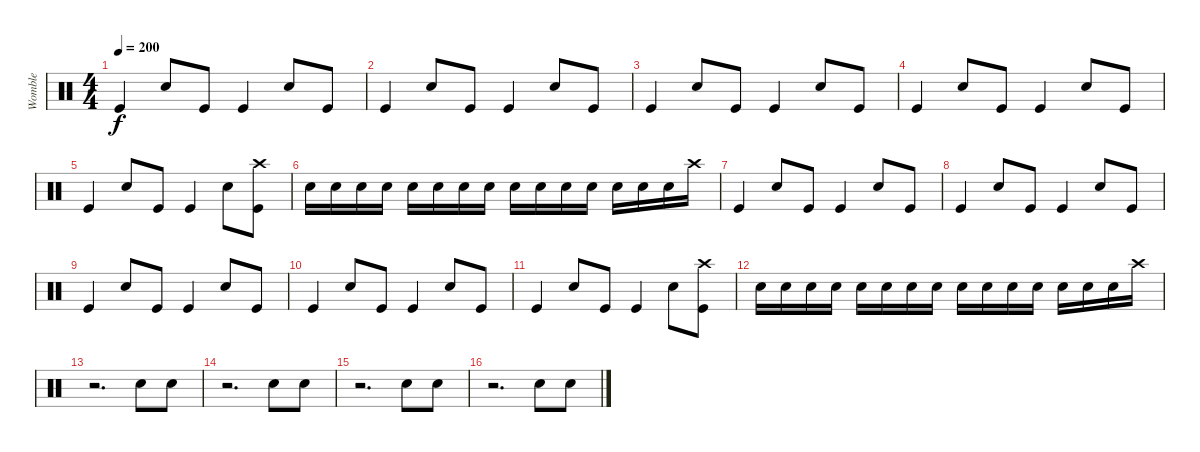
\track ("Womble" "Womble") {instrument percussion}
\staff {score}
\articulation defaults
\ts (4 4)
\tempo 200
\clef neutral
\ks c "Kick (hit)".4{dy f} "Snare (hit) 2".8 "Kick (hit)".8 "Kick (hit)".4 "Electric Snare (hit)".8 "Kick (hit)".8
|
"Kick (hit)".4 "Snare (hit) 2".8 "Kick (hit)".8 "Kick (hit)".4 "Electric Snare (hit)".8 "Kick (hit)".8 |
"Kick (hit)".4 "Snare (hit) 2".8 "Kick (hit)".8 "Kick (hit)".4 "Electric Snare (hit)".8 "Kick (hit)".8 |
"Kick (hit)".4 "Snare (hit) 2".8 "Kick (hit)".8 "Kick (hit)".4 "Electric Snare (hit)".8 "Kick (hit)".8 |
"Kick (hit)".4 "Snare (hit) 2".8 "Kick (hit)".8 "Kick (hit)".4 "Electric Snare (hit)".8 ("Crash high (hit)" "Kick (hit)").8 |
"Snare (hit) 2".16 "Snare (hit) 2".16 "Snare (hit) 2".16 "Snare (hit) 2".16 "Snare (hit) 2".16 "Snare (hit) 2".16 "Snare (hit) 2".16 "Snare (hit) 2".16 "Snare (hit) 2".16 "Snare (hit) 2".16 "Snare (hit) 2".16 "Snare (hit) 2".16 "Snare (hit) 2".16 "Snare (hit) 2".16 "Snare (hit) 2".16 "Crash high (hit)".16 |
"Kick (hit)".4 "Snare (hit) 2".8 "Kick (hit)".8 "Kick (hit)".4 "Electric Snare (hit)".8 "Kick (hit)".8 |
"Kick (hit)".4 "Snare (hit) 2".8 "Kick (hit)".8 "Kick (hit)".4 "Electric Snare (hit)".8 "Kick (hit)".8 |
"Kick (hit)".4 "Snare (hit) 2".8 "Kick (hit)".8 "Kick (hit)".4 "Electric Snare (hit)".8 "Kick (hit)".8 |
"Kick (hit)".4 "Snare (hit) 2".8 "Kick (hit)".8 "Kick (hit)".4 "Electric Snare (hit)".8 "Kick (hit)".8 |
"Kick (hit)".4 "Snare (hit) 2".8 "Kick (hit)".8 "Kick (hit)".4 "Electric Snare (hit)".8 ("Crash high (hit)" "Kick (hit)").8 |
"Snare (hit) 2".16 "Snare (hit) 2".16 "Snare (hit) 2".16 "Snare (hit) 2".16 "Snare (hit) 2".16 "Snare (hit) 2".16 "Snare (hit) 2".16 "Snare (hit) 2".16 "Snare (hit) 2".16 "Snare (hit) 2".16 "Snare (hit) 2".16 "Snare (hit) 2".16 "Snare (hit) 2".16 "Snare (hit) 2".16 "Snare (hit) 2".16 "Crash high (hit)".16 |
r.2{d} "Snare (hit) 2".8 "Snare (hit) 2".8 |
r.2{d} "Snare (hit) 2".8 "Snare (hit) 2".8 |
r.2{d} "Snare (hit) 2".8 "Snare (hit) 2".8 |
r.2{d} "Snare (hit) 2".8 "Snare (hit) 2".8
